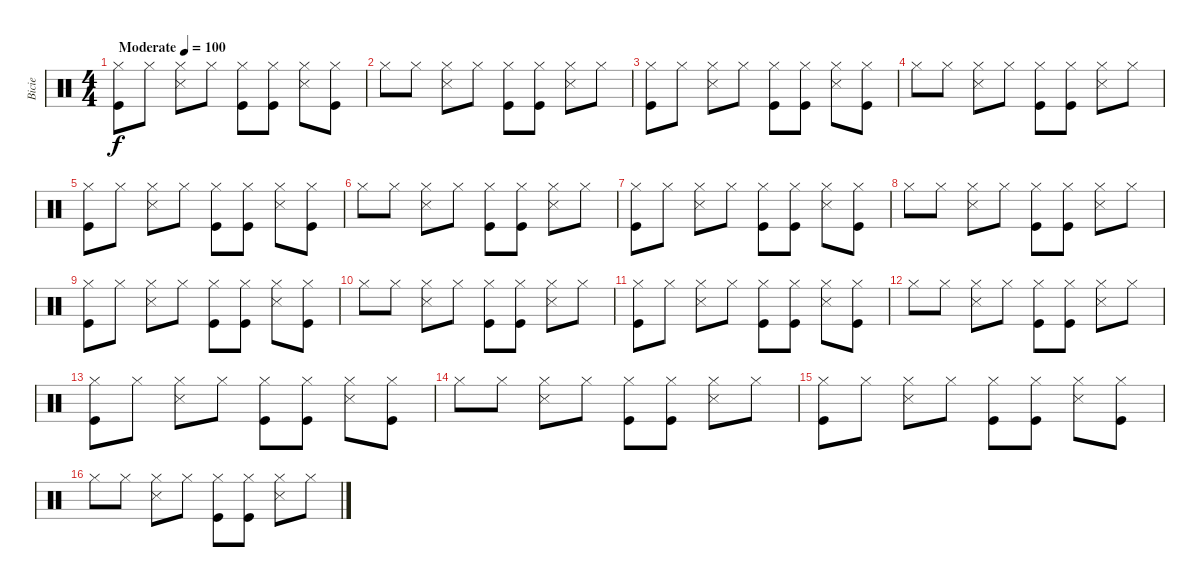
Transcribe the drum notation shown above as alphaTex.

\track ("Bicie" "Bicie") {instrument percussion}
\staff {score}
\articulation defaults
\ts (4 4)
\tempo (100 "Moderate")
\clef neutral
\ks c
("Hi-Hat (closed)" "Kick (hit)").8{dy f} "Hi-Hat (closed)".8 ("Hi-Hat (closed)" "Snare (side stick) 3").8 "Hi-Hat (closed)".8 ("Hi-Hat (closed)" "Kick (hit)").8 ("Hi-Hat (closed)" "Kick (hit)").8 ("Hi-Hat (closed)" "Snare (side stick) 3").8 ("Hi-Hat (closed)" "Kick (hit)").8 |
"Hi-Hat (closed)".8 "Hi-Hat (closed)".8 ("Hi-Hat (closed)" "Snare (side stick) 3").8 "Hi-Hat (closed)".8 ("Hi-Hat (closed)" "Kick (hit)").8 ("Hi-Hat (closed)" "Kick (hit)").8 ("Hi-Hat (closed)" "Snare (side stick) 3").8 "Hi-Hat (closed)".8 |
("Hi-Hat (closed)" "Kick (hit)").8 "Hi-Hat (closed)".8 ("Hi-Hat (closed)" "Snare (side stick) 3").8 "Hi-Hat (closed)".8 ("Hi-Hat (closed)" "Kick (hit)").8 ("Hi-Hat (closed)" "Kick (hit)").8 ("Hi-Hat (closed)" "Snare (side stick) 3").8 ("Hi-Hat (closed)" "Kick (hit)").8 |
"Hi-Hat (closed)".8 "Hi-Hat (closed)".8 ("Hi-Hat (closed)" "Snare (side stick) 3").8 "Hi-Hat (closed)".8 ("Hi-Hat (closed)" "Kick (hit)").8 ("Hi-Hat (closed)" "Kick (hit)").8 ("Hi-Hat (closed)" "Snare (side stick) 3").8 "Hi-Hat (closed)".8 |
("Hi-Hat (closed)" "Kick (hit)").8 "Hi-Hat (closed)".8 ("Hi-Hat (closed)" "Snare (side stick) 3").8 "Hi-Hat (closed)".8 ("Hi-Hat (closed)" "Kick (hit)").8 ("Hi-Hat (closed)" "Kick (hit)").8 ("Hi-Hat (closed)" "Snare (side stick) 3").8 ("Hi-Hat (closed)" "Kick (hit)").8 |
"Hi-Hat (closed)".8 "Hi-Hat (closed)".8 ("Hi-Hat (closed)" "Snare (side stick) 3").8 "Hi-Hat (closed)".8 ("Hi-Hat (closed)" "Kick (hit)").8 ("Hi-Hat (closed)" "Kick (hit)").8 ("Hi-Hat (closed)" "Snare (side stick) 3").8 "Hi-Hat (closed)".8 |
("Hi-Hat (closed)" "Kick (hit)").8 "Hi-Hat (closed)".8 ("Hi-Hat (closed)" "Snare (side stick) 3").8 "Hi-Hat (closed)".8 ("Hi-Hat (closed)" "Kick (hit)").8 ("Hi-Hat (closed)" "Kick (hit)").8 ("Hi-Hat (closed)" "Snare (side stick) 3").8 ("Hi-Hat (closed)" "Kick (hit)").8 |
"Hi-Hat (closed)".8 "Hi-Hat (closed)".8 ("Hi-Hat (closed)" "Snare (side stick) 3").8 "Hi-Hat (closed)".8 ("Hi-Hat (closed)" "Kick (hit)").8 ("Hi-Hat (closed)" "Kick (hit)").8 ("Hi-Hat (closed)" "Snare (side stick) 3").8 "Hi-Hat (closed)".8 |
("Hi-Hat (closed)" "Kick (hit)").8 "Hi-Hat (closed)".8 ("Hi-Hat (closed)" "Snare (side stick) 3").8 "Hi-Hat (closed)".8 ("Hi-Hat (closed)" "Kick (hit)").8 ("Hi-Hat (closed)" "Kick (hit)").8 ("Hi-Hat (closed)" "Snare (side stick) 3").8 ("Hi-Hat (closed)" "Kick (hit)").8 |
"Hi-Hat (closed)".8 "Hi-Hat (closed)".8 ("Hi-Hat (closed)" "Snare (side stick) 3").8 "Hi-Hat (closed)".8 ("Hi-Hat (closed)" "Kick (hit)").8 ("Hi-Hat (closed)" "Kick (hit)").8 ("Hi-Hat (closed)" "Snare (side stick) 3").8 "Hi-Hat (closed)".8 |
("Hi-Hat (closed)" "Kick (hit)").8 "Hi-Hat (closed)".8 ("Hi-Hat (closed)" "Snare (side stick) 3").8 "Hi-Hat (closed)".8 ("Hi-Hat (closed)" "Kick (hit)").8 ("Hi-Hat (closed)" "Kick (hit)").8 ("Hi-Hat (closed)" "Snare (side stick) 3").8 ("Hi-Hat (closed)" "Kick (hit)").8 |
"Hi-Hat (closed)".8 "Hi-Hat (closed)".8 ("Hi-Hat (closed)" "Snare (side stick) 3").8 "Hi-Hat (closed)".8 ("Hi-Hat (closed)" "Kick (hit)").8 ("Hi-Hat (closed)" "Kick (hit)").8 ("Hi-Hat (closed)" "Snare (side stick) 3").8 "Hi-Hat (closed)".8 |
("Hi-Hat (closed)" "Kick (hit)").8 "Hi-Hat (closed)".8 ("Hi-Hat (closed)" "Snare (side stick) 3").8 "Hi-Hat (closed)".8 ("Hi-Hat (closed)" "Kick (hit)").8 ("Hi-Hat (closed)" "Kick (hit)").8 ("Hi-Hat (closed)" "Snare (side stick) 3").8 ("Hi-Hat (closed)" "Kick (hit)").8 |
"Hi-Hat (closed)".8 "Hi-Hat (closed)".8 ("Hi-Hat (closed)" "Snare (side stick) 3").8 "Hi-Hat (closed)".8 ("Hi-Hat (closed)" "Kick (hit)").8 ("Hi-Hat (closed)" "Kick (hit)").8 ("Hi-Hat (closed)" "Snare (side stick) 3").8 "Hi-Hat (closed)".8 |
("Hi-Hat (closed)" "Kick (hit)").8 "Hi-Hat (closed)".8 ("Hi-Hat (closed)" "Snare (side stick) 3").8 "Hi-Hat (closed)".8 ("Hi-Hat (closed)" "Kick (hit)").8 ("Hi-Hat (closed)" "Kick (hit)").8 ("Hi-Hat (closed)" "Snare (side stick) 3").8 ("Hi-Hat (closed)" "Kick (hit)").8 |
"Hi-Hat (closed)".8 "Hi-Hat (closed)".8 ("Hi-Hat (closed)" "Snare (side stick) 3").8 "Hi-Hat (closed)".8 ("Hi-Hat (closed)" "Kick (hit)").8 ("Hi-Hat (closed)" "Kick (hit)").8 ("Hi-Hat (closed)" "Snare (side stick) 3").8 "Hi-Hat (closed)".8
